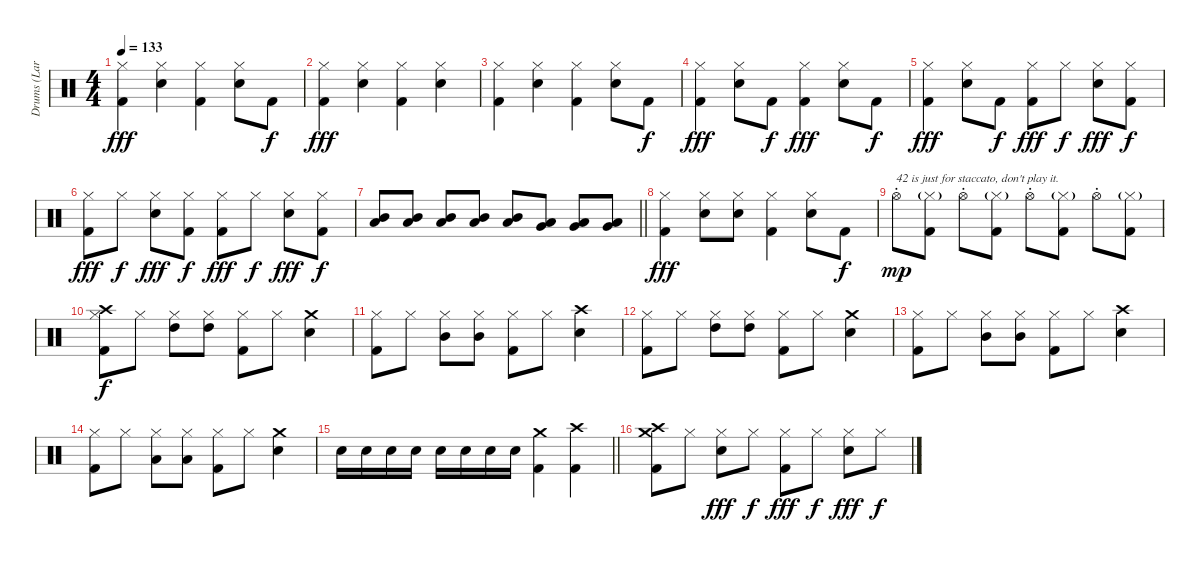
\track ("Drums (Lars)" "Drums (Lar") {instrument percussion}
\staff {score}
\articulation defaults
\ts (4 4)
\tempo 133
\clef neutral
\ks c
("Hi-Hat (closed)" "Kick (hit) 2").4{dy fff} ("Hi-Hat (closed)" "Snare (hit) 2").4 ("Hi-Hat (closed)" "Kick (hit) 2").4 ("Hi-Hat (closed)" "Snare (hit) 2").8 "Kick (hit) 2".8{dy f} |
("Hi-Hat (closed)" "Kick (hit) 2").4{dy fff} ("Hi-Hat (closed)" "Snare (hit) 2").4 ("Hi-Hat (closed)" "Kick (hit) 2").4 ("Hi-Hat (closed)" "Snare (hit) 2").4 |
("Hi-Hat (closed)" "Kick (hit) 2").4 ("Hi-Hat (closed)" "Snare (hit) 2").4 ("Hi-Hat (closed)" "Kick (hit) 2").4 ("Hi-Hat (closed)" "Snare (hit) 2").8 "Kick (hit) 2".8{dy f} |
("Hi-Hat (closed)" "Kick (hit) 2").4{dy fff} ("Hi-Hat (closed)" "Snare (hit) 2").8 "Kick (hit) 2".8{dy f} ("Hi-Hat (closed)" "Kick (hit) 2").4{dy fff} ("Hi-Hat (closed)" "Snare (hit) 2").8 "Kick (hit) 2".8{dy f} |
("Hi-Hat (closed)" "Kick (hit) 2").4{dy fff} ("Hi-Hat (closed)" "Snare (hit) 2").8 "Kick (hit) 2".8{dy f} ("Hi-Hat (closed)" "Kick (hit) 2").8{dy fff} "Hi-Hat (closed)".8{dy f} ("Hi-Hat (closed)" "Snare (hit) 2").8{dy fff} ("Hi-Hat (closed)" "Kick (hit) 2").8{dy f} |
("Hi-Hat (closed)" "Kick (hit) 2").8{dy fff} "Hi-Hat (closed)".8{dy f} ("Hi-Hat (closed)" "Snare (hit) 2").8{dy fff} ("Hi-Hat (closed)" "Kick (hit) 2").8{dy f} ("Hi-Hat (closed)" "Kick (hit) 2").8{dy fff} "Hi-Hat (closed)".8{dy f} ("Hi-Hat (closed)" "Snare (hit) 2").8{dy fff} ("Hi-Hat (closed)" "Kick (hit) 2").8{dy f} |
\barLineRight lightlight
("Mid Tom (hit)" "Low Tom (hit)").8 ("Mid Tom (hit)" "Low Tom (hit)").8 ("Mid Tom (hit)" "Low Tom (hit)").8 ("Mid Tom (hit)" "Low Tom (hit)").8 ("Mid Tom (hit)" "Low Tom (hit)").8 ("Low Tom (hit)" "Very Low Tom (hit)").8 ("Low Tom (hit)" "Very Low Tom (hit)").8 ("Low Tom (hit)" "Very Low Tom (hit)").8 |
("Hi-Hat (closed)" "Kick (hit) 2").4{dy fff} ("Hi-Hat (closed)" "Snare (hit) 2").8 ("Hi-Hat (closed)" "Snare (hit) 2").8 ("Hi-Hat (closed)" "Kick (hit) 2").4 ("Hi-Hat (closed)" "Snare (hit) 2").8 "Kick (hit) 2".8{dy f} |
"Hi-Hat (open)"{st}.8{txt "42 is just for staccato, don't play it." dy mp} ("Hi-Hat (closed)"{g} "Kick (hit) 2").8 "Hi-Hat (open)"{st}.8 ("Hi-Hat (closed)"{g} "Kick (hit) 2").8 "Hi-Hat (open)"{st}.8 ("Hi-Hat (closed)"{g} "Kick (hit) 2").8 "Hi-Hat (open)"{st}.8 ("Hi-Hat (closed)"{g} "Kick (hit) 2").8 |
("Crash high (hit)" "Hi-Hat (closed)" "Kick (hit) 2").8{dy f} "Hi-Hat (closed)".8 ("Hi-Hat (closed)" "High Tom (hit)").8 ("Hi-Hat (closed)" "High Tom (hit)").8 ("Hi-Hat (closed)" "Kick (hit) 2").8 "Hi-Hat (closed)".8 ("Crash medium (hit)" "Snare (hit) 2").4 |
("Hi-Hat (closed)" "Kick (hit) 2").8 "Hi-Hat (closed)".8 ("Hi-Hat (closed)" "Mid Tom (hit)").8 ("Hi-Hat (closed)" "Mid Tom (hit)").8 ("Hi-Hat (closed)" "Kick (hit) 2").8 "Hi-Hat (closed)".8 ("Crash high (hit)" "Snare (hit) 2").4 |
("Hi-Hat (closed)" "Kick (hit) 2").8 "Hi-Hat (closed)".8 ("Hi-Hat (closed)" "High Tom (hit)").8 ("Hi-Hat (closed)" "High Tom (hit)").8 ("Hi-Hat (closed)" "Kick (hit) 2").8 "Hi-Hat (closed)".8 ("Crash medium (hit)" "Snare (hit) 2").4 |
("Hi-Hat (closed)" "Kick (hit) 2").8 "Hi-Hat (closed)".8 ("Hi-Hat (closed)" "Mid Tom (hit)").8 ("Hi-Hat (closed)" "Mid Tom (hit)").8 ("Hi-Hat (closed)" "Kick (hit) 2").8 "Hi-Hat (closed)".8 ("Crash high (hit)" "Snare (hit) 2").4 |
("Hi-Hat (closed)" "Kick (hit) 2").8 "Hi-Hat (closed)".8 ("Hi-Hat (closed)" "Low Tom (hit)").8 ("Hi-Hat (closed)" "Low Tom (hit)").8 ("Hi-Hat (closed)" "Kick (hit) 2").8 "Hi-Hat (closed)".8 ("Crash medium (hit)" "Snare (hit) 2").4 |
\barLineRight lightlight "Snare (hit) 2".16 "Snare (hit) 2".16 "Snare (hit) 2".16 "Snare (hit) 2".16 "Snare (hit) 2".16 "Snare (hit) 2".16 "Snare (hit) 2".16 "Snare (hit) 2".16
("Crash medium (hit)" "Kick (hit) 2").4 ("Crash high (hit)" "Kick (hit) 2").4 |
("Crash high (hit)" "Crash medium (hit)" "Kick (hit) 2").8 "Hi-Hat (closed)".8 ("Hi-Hat (closed)" "Snare (hit) 2").8{dy fff} "Hi-Hat (closed)".8{dy f} ("Hi-Hat (closed)" "Kick (hit) 2").8{dy fff} "Hi-Hat (closed)".8{dy f} ("Hi-Hat (closed)" "Snare (hit) 2").8{dy fff} "Hi-Hat (closed)".8{dy f}
